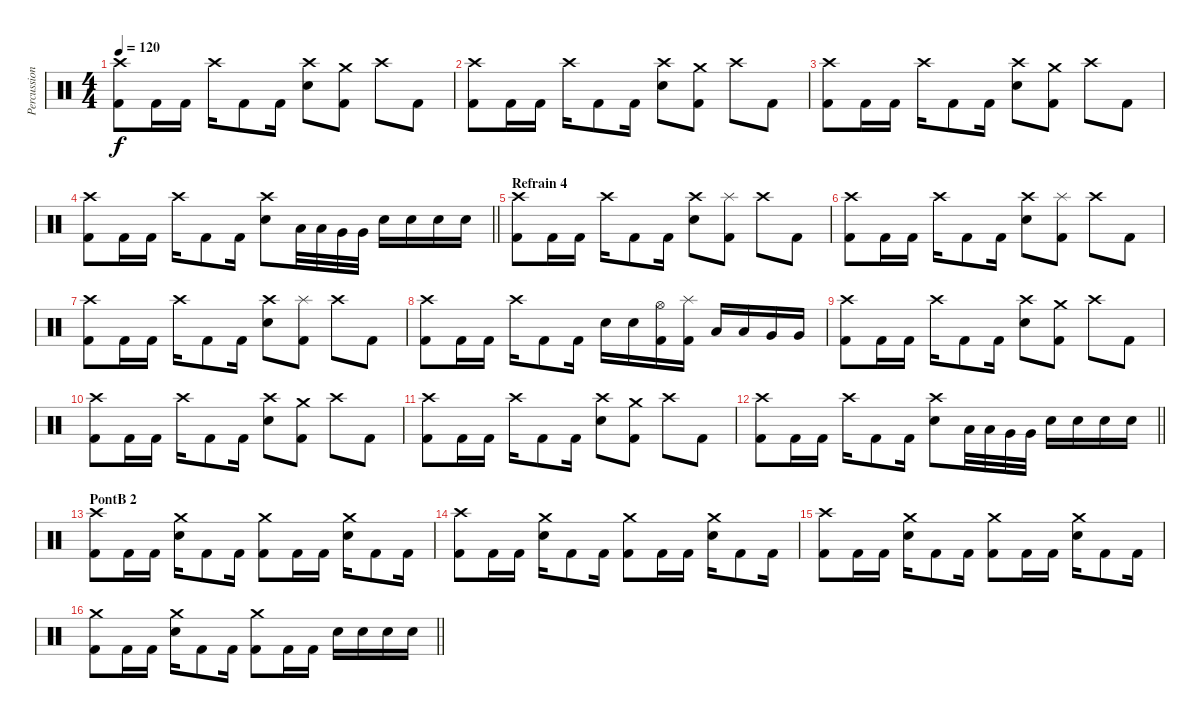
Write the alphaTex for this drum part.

\track ("Percussion" "Percussion") {instrument percussion}
\staff {score}
\articulation defaults
\ts (4 4)
\tempo 120
\clef neutral
\ks c
("Crash high (hit)" "Kick (hit) 2").8{dy f} "Kick (hit) 2".16 "Kick (hit) 2".16 "Crash high (hit)".16 "Kick (hit) 2".8 "Kick (hit) 2".16 ("Crash high (hit)" "Electric Snare (hit)").8 ("Crash medium (hit)" "Kick (hit) 2").8 "Crash high (hit)".8 "Kick (hit) 2".8 |
("Crash high (hit)" "Kick (hit) 2").8 "Kick (hit) 2".16 "Kick (hit) 2".16 "Crash high (hit)".16 "Kick (hit) 2".8 "Kick (hit) 2".16 ("Crash high (hit)" "Electric Snare (hit)").8 ("Crash medium (hit)" "Kick (hit) 2").8 "Crash high (hit)".8 "Kick (hit) 2".8 |
("Crash high (hit)" "Kick (hit) 2").8 "Kick (hit) 2".16 "Kick (hit) 2".16 "Crash high (hit)".16 "Kick (hit) 2".8 "Kick (hit) 2".16 ("Crash high (hit)" "Electric Snare (hit)").8 ("Crash medium (hit)" "Kick (hit) 2").8 "Crash high (hit)".8 "Kick (hit) 2".8 |
\barLineRight lightlight
("Crash high (hit)" "Kick (hit) 2").8 "Kick (hit) 2".16 "Kick (hit) 2".16 "Crash high (hit)".16 "Kick (hit) 2".8 "Kick (hit) 2".16 ("Crash high (hit)" "Electric Snare (hit)").8 "Low Tom (hit)".32 "Low Tom (hit)".32 "Very Low Tom (hit)".32 "Very Low Tom (hit)".32 "Electric Snare (hit)".16 "Electric Snare (hit)".16 "Electric Snare (hit)".16 "Electric Snare (hit)".16 |
\section ("" "Refrain 4")
("Crash high (hit)" "Kick (hit) 2").8 "Kick (hit) 2".16 "Kick (hit) 2".16 "Crash high (hit)".16 "Kick (hit) 2".8 "Kick (hit) 2".16 ("Crash high (hit)" "Electric Snare (hit)").8 ("Splash (hit)" "Kick (hit) 2").8 "Crash high (hit)".8 "Kick (hit) 2".8 |
("Crash high (hit)" "Kick (hit) 2").8 "Kick (hit) 2".16 "Kick (hit) 2".16 "Crash high (hit)".16 "Kick (hit) 2".8 "Kick (hit) 2".16 ("Crash high (hit)" "Electric Snare (hit)").8 ("Splash (hit)" "Kick (hit) 2").8 "Crash high (hit)".8 "Kick (hit) 2".8 |
("Crash high (hit)" "Kick (hit) 2").8 "Kick (hit) 2".16 "Kick (hit) 2".16 "Crash high (hit)".16 "Kick (hit) 2".8 "Kick (hit) 2".16 ("Crash high (hit)" "Electric Snare (hit)").8 ("Splash (hit)" "Kick (hit) 2").8 "Crash high (hit)".8 "Kick (hit) 2".8 |
("Crash high (hit)" "Kick (hit) 2").8 "Kick (hit) 2".16 "Kick (hit) 2".16 "Crash high (hit)".16 "Kick (hit) 2".8 "Kick (hit) 2".16 "Electric Snare (hit)".16 "Electric Snare (hit)".16 ("Hi-Hat (open)" "Kick (hit) 2").16 ("Splash (hit)" "Kick (hit) 2").16 "Low Tom (hit)".16 "Low Tom (hit)".16 "Very Low Tom (hit)".16 "Very Low Tom (hit)".16 |
("Crash high (hit)" "Kick (hit) 2").8 "Kick (hit) 2".16 "Kick (hit) 2".16 "Crash high (hit)".16 "Kick (hit) 2".8 "Kick (hit) 2".16 ("Crash high (hit)" "Electric Snare (hit)").8 ("Crash medium (hit)" "Kick (hit) 2").8 "Crash high (hit)".8 "Kick (hit) 2".8 |
("Crash high (hit)" "Kick (hit) 2").8 "Kick (hit) 2".16 "Kick (hit) 2".16 "Crash high (hit)".16 "Kick (hit) 2".8 "Kick (hit) 2".16 ("Crash high (hit)" "Electric Snare (hit)").8 ("Crash medium (hit)" "Kick (hit) 2").8 "Crash high (hit)".8 "Kick (hit) 2".8 |
("Crash high (hit)" "Kick (hit) 2").8 "Kick (hit) 2".16 "Kick (hit) 2".16 "Crash high (hit)".16 "Kick (hit) 2".8 "Kick (hit) 2".16 ("Crash high (hit)" "Electric Snare (hit)").8 ("Crash medium (hit)" "Kick (hit) 2").8 "Crash high (hit)".8 "Kick (hit) 2".8 |
\barLineRight lightlight
("Crash high (hit)" "Kick (hit) 2").8 "Kick (hit) 2".16 "Kick (hit) 2".16 "Crash high (hit)".16 "Kick (hit) 2".8 "Kick (hit) 2".16 ("Crash high (hit)" "Electric Snare (hit)").8 "Low Tom (hit)".32 "Low Tom (hit)".32 "Very Low Tom (hit)".32 "Very Low Tom (hit)".32 "Electric Snare (hit)".16 "Electric Snare (hit)".16 "Electric Snare (hit)".16 "Electric Snare (hit)".16 |
\section ("" "PontB 2")
("Crash high (hit)" "Kick (hit) 2").8 "Kick (hit) 2".16 "Kick (hit) 2".16 ("Crash medium (hit)" "Electric Snare (hit)").16 "Kick (hit) 2".8 "Kick (hit) 2".16 ("Crash medium (hit)" "Kick (hit) 2").8 "Kick (hit) 2".16 "Kick (hit) 2".16 ("Crash medium (hit)" "Electric Snare (hit)").16 "Kick (hit) 2".8 "Kick (hit) 2".16 |
("Crash high (hit)" "Kick (hit) 2").8 "Kick (hit) 2".16 "Kick (hit) 2".16 ("Crash medium (hit)" "Electric Snare (hit)").16 "Kick (hit) 2".8 "Kick (hit) 2".16 ("Crash medium (hit)" "Kick (hit) 2").8 "Kick (hit) 2".16 "Kick (hit) 2".16 ("Crash medium (hit)" "Electric Snare (hit)").16 "Kick (hit) 2".8 "Kick (hit) 2".16 |
("Crash high (hit)" "Kick (hit) 2").8 "Kick (hit) 2".16 "Kick (hit) 2".16 ("Crash medium (hit)" "Electric Snare (hit)").16 "Kick (hit) 2".8 "Kick (hit) 2".16 ("Crash medium (hit)" "Kick (hit) 2").8 "Kick (hit) 2".16 "Kick (hit) 2".16 ("Crash medium (hit)" "Electric Snare (hit)").16 "Kick (hit) 2".8 "Kick (hit) 2".16 |
\barLineRight lightlight
("Crash medium (hit)" "Kick (hit) 2").8 "Kick (hit) 2".16 "Kick (hit) 2".16 ("Crash medium (hit)" "Electric Snare (hit)").16 "Kick (hit) 2".8 "Kick (hit) 2".16 ("Crash medium (hit)" "Kick (hit) 2").8 "Kick (hit) 2".16 "Kick (hit) 2".16 "Electric Snare (hit)".16 "Electric Snare (hit)".16 "Electric Snare (hit)".16 "Electric Snare (hit)".16
